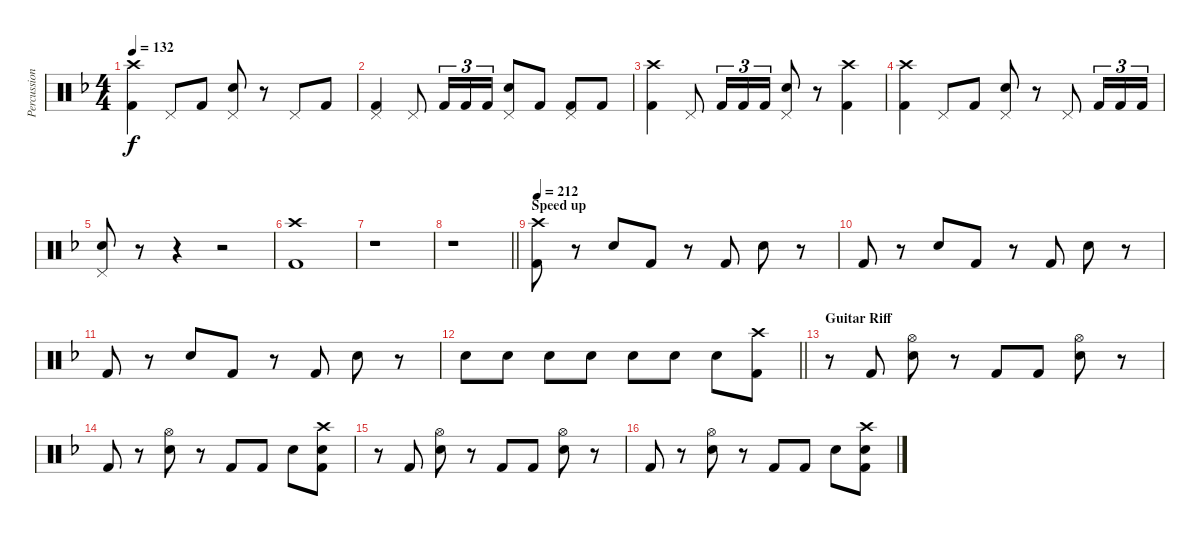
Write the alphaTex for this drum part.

\track ("Percussion" "Percussion") {instrument percussion}
\staff {score}
\articulation defaults
\ts (4 4)
\tempo 132
\clef neutral
\ks dminor
("Crash high (hit)" "Kick (hit) 2").4{dy f} "Pedal Hi-Hat (hit)".8 "Kick (hit) 2".8 ("Pedal Hi-Hat (hit)" "Electric Snare (hit)").8 r.8 "Pedal Hi-Hat (hit)".8 "Kick (hit) 2".8 |
("Pedal Hi-Hat (hit)" "Kick (hit) 2").4 "Pedal Hi-Hat (hit)".8 "Kick (hit) 2".16{tu (3 2)} "Kick (hit) 2".16{tu (3 2)} "Kick (hit) 2".16{tu (3 2)} ("Pedal Hi-Hat (hit)" "Electric Snare (hit)").8 "Kick (hit) 2".8 ("Pedal Hi-Hat (hit)" "Kick (hit) 2").8 "Kick (hit) 2".8 |
("Crash high (hit)" "Kick (hit) 2").4 "Pedal Hi-Hat (hit)".8 "Kick (hit) 2".16{tu (3 2)} "Kick (hit) 2".16{tu (3 2)} "Kick (hit) 2".16{tu (3 2)} ("Pedal Hi-Hat (hit)" "Electric Snare (hit)").8 r.8 ("Crash high (hit)" "Kick (hit) 2").4 |
("Crash high (hit)" "Kick (hit) 2").4 "Pedal Hi-Hat (hit)".8 "Kick (hit) 2".8 ("Pedal Hi-Hat (hit)" "Electric Snare (hit)").8 r.8 "Pedal Hi-Hat (hit)".8 "Kick (hit) 2".16{tu (3 2)} "Kick (hit) 2".16{tu (3 2)} "Kick (hit) 2".16{tu (3 2)} |
("Pedal Hi-Hat (hit)" "Electric Snare (hit)").8 r.8 r.4 r.2 |
("Crash high (hit)" "Kick (hit) 2").1 |
r.1 |
\barLineRight lightlight
r.1 |
\section ("" "Speed up")
\tempo 212
("Crash high (hit)" "Kick (hit) 2").8 r.8 "Electric Snare (hit)".8 "Kick (hit) 2".8 r.8 "Kick (hit) 2".8 "Electric Snare (hit)".8 r.8 |
"Kick (hit) 2".8 r.8 "Electric Snare (hit)".8 "Kick (hit) 2".8 r.8 "Kick (hit) 2".8 "Electric Snare (hit)".8 r.8 |
"Kick (hit) 2".8 r.8 "Electric Snare (hit)".8 "Kick (hit) 2".8 r.8 "Kick (hit) 2".8 "Electric Snare (hit)".8 r.8 |
\barLineRight lightlight "Electric Snare (hit)".8 "Electric Snare (hit)".8 "Electric Snare (hit)".8 "Electric Snare (hit)".8 "Electric Snare (hit)".8 "Electric Snare (hit)".8 "Electric Snare (hit)".8
("Crash high (hit)" "Kick (hit) 2").8 |
\section ("" "Guitar Riff")
r.8 "Kick (hit) 2".8 ("Hi-Hat (open)" "Electric Snare (hit)").8 r.8 "Kick (hit) 2".8 "Kick (hit) 2".8 ("Hi-Hat (open)" "Electric Snare (hit)").8 r.8 |
"Kick (hit) 2".8 r.8 ("Hi-Hat (open)" "Electric Snare (hit)").8 r.8 "Kick (hit) 2".8 "Kick (hit) 2".8 "Electric Snare (hit)".8 ("Crash high (hit)" "Electric Snare (hit)" "Kick (hit) 2").8 |
r.8 "Kick (hit) 2".8 ("Hi-Hat (open)" "Electric Snare (hit)").8 r.8 "Kick (hit) 2".8 "Kick (hit) 2".8 ("Hi-Hat (open)" "Electric Snare (hit)").8 r.8 |
"Kick (hit) 2".8 r.8 ("Hi-Hat (open)" "Electric Snare (hit)").8 r.8 "Kick (hit) 2".8 "Kick (hit) 2".8 "Electric Snare (hit)".8 ("Crash high (hit)" "Electric Snare (hit)" "Kick (hit) 2").8
